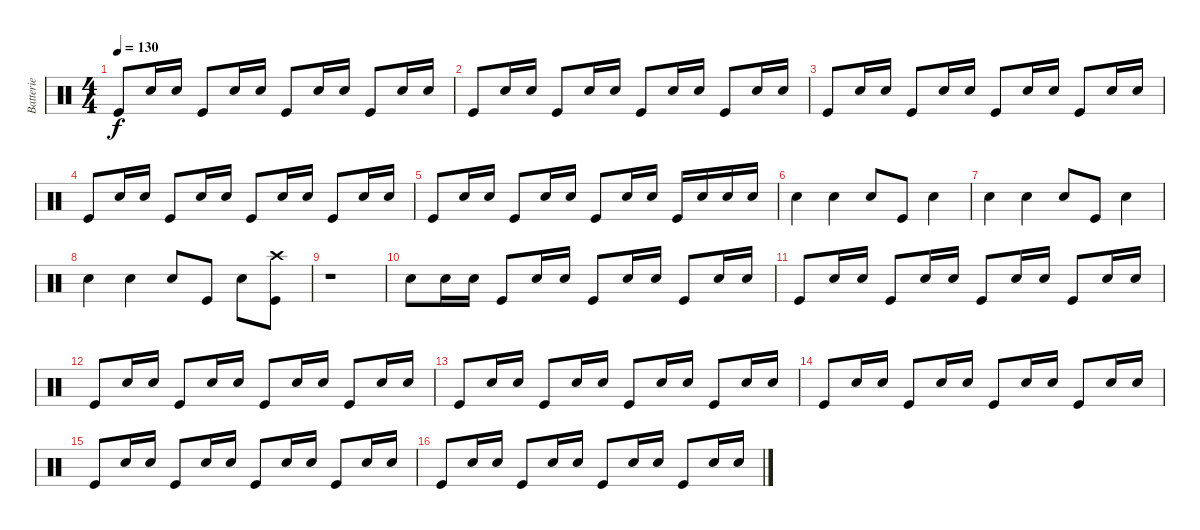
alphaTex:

\track ("Batterie" "Batterie") {instrument percussion}
\staff {score}
\articulation defaults
\ts (4 4)
\tempo 130
\clef neutral
\ks c "Kick (hit)".8{dy f} "Snare (hit) 2".16 "Snare (hit) 2".16 "Kick (hit)".8 "Snare (hit) 2".16 "Snare (hit) 2".16 "Kick (hit)".8 "Snare (hit) 2".16 "Snare (hit) 2".16 "Kick (hit)".8 "Snare (hit) 2".16 "Snare (hit) 2".16
|
"Kick (hit)".8 "Snare (hit) 2".16 "Snare (hit) 2".16 "Kick (hit)".8 "Snare (hit) 2".16 "Snare (hit) 2".16 "Kick (hit)".8 "Snare (hit) 2".16 "Snare (hit) 2".16 "Kick (hit)".8 "Snare (hit) 2".16 "Snare (hit) 2".16 |
"Kick (hit)".8 "Snare (hit) 2".16 "Snare (hit) 2".16 "Kick (hit)".8 "Snare (hit) 2".16 "Snare (hit) 2".16 "Kick (hit)".8 "Snare (hit) 2".16 "Snare (hit) 2".16 "Kick (hit)".8 "Snare (hit) 2".16 "Snare (hit) 2".16 |
"Kick (hit)".8 "Snare (hit) 2".16 "Snare (hit) 2".16 "Kick (hit)".8 "Snare (hit) 2".16 "Snare (hit) 2".16 "Kick (hit)".8 "Snare (hit) 2".16 "Snare (hit) 2".16 "Kick (hit)".8 "Snare (hit) 2".16 "Snare (hit) 2".16 |
"Kick (hit)".8 "Snare (hit) 2".16 "Snare (hit) 2".16 "Kick (hit)".8 "Snare (hit) 2".16 "Snare (hit) 2".16 "Kick (hit)".8 "Snare (hit) 2".16 "Snare (hit) 2".16 "Kick (hit)".16 "Snare (hit) 2".16 "Snare (hit) 2".16 "Snare (hit) 2".16 |
"Snare (hit) 2".4 "Snare (hit) 2".4 "Snare (hit) 2".8 "Kick (hit)".8 "Snare (hit) 2".4 |
"Snare (hit) 2".4 "Snare (hit) 2".4 "Snare (hit) 2".8 "Kick (hit)".8 "Snare (hit) 2".4 |
"Snare (hit) 2".4 "Snare (hit) 2".4 "Snare (hit) 2".8 "Kick (hit)".8 "Snare (hit) 2".8 ("Crash high (hit)" "Kick (hit)").8 |
r.1 |
"Snare (hit) 2".8 "Snare (hit) 2".16 "Snare (hit) 2".16 "Kick (hit)".8 "Snare (hit) 2".16 "Snare (hit) 2".16 "Kick (hit)".8 "Snare (hit) 2".16 "Snare (hit) 2".16 "Kick (hit)".8 "Snare (hit) 2".16 "Snare (hit) 2".16 |
"Kick (hit)".8 "Snare (hit) 2".16 "Snare (hit) 2".16 "Kick (hit)".8 "Snare (hit) 2".16 "Snare (hit) 2".16 "Kick (hit)".8 "Snare (hit) 2".16 "Snare (hit) 2".16 "Kick (hit)".8 "Snare (hit) 2".16 "Snare (hit) 2".16 |
"Kick (hit)".8 "Snare (hit) 2".16 "Snare (hit) 2".16 "Kick (hit)".8 "Snare (hit) 2".16 "Snare (hit) 2".16 "Kick (hit)".8 "Snare (hit) 2".16 "Snare (hit) 2".16 "Kick (hit)".8 "Snare (hit) 2".16 "Snare (hit) 2".16 |
"Kick (hit)".8 "Snare (hit) 2".16 "Snare (hit) 2".16 "Kick (hit)".8 "Snare (hit) 2".16 "Snare (hit) 2".16 "Kick (hit)".8 "Snare (hit) 2".16 "Snare (hit) 2".16 "Kick (hit)".8 "Snare (hit) 2".16 "Snare (hit) 2".16 |
"Kick (hit)".8 "Snare (hit) 2".16 "Snare (hit) 2".16 "Kick (hit)".8 "Snare (hit) 2".16 "Snare (hit) 2".16 "Kick (hit)".8 "Snare (hit) 2".16 "Snare (hit) 2".16 "Kick (hit)".8 "Snare (hit) 2".16 "Snare (hit) 2".16 |
"Kick (hit)".8 "Snare (hit) 2".16 "Snare (hit) 2".16 "Kick (hit)".8 "Snare (hit) 2".16 "Snare (hit) 2".16 "Kick (hit)".8 "Snare (hit) 2".16 "Snare (hit) 2".16 "Kick (hit)".8 "Snare (hit) 2".16 "Snare (hit) 2".16 |
"Kick (hit)".8 "Snare (hit) 2".16 "Snare (hit) 2".16 "Kick (hit)".8 "Snare (hit) 2".16 "Snare (hit) 2".16 "Kick (hit)".8 "Snare (hit) 2".16 "Snare (hit) 2".16 "Kick (hit)".8 "Snare (hit) 2".16 "Snare (hit) 2".16
